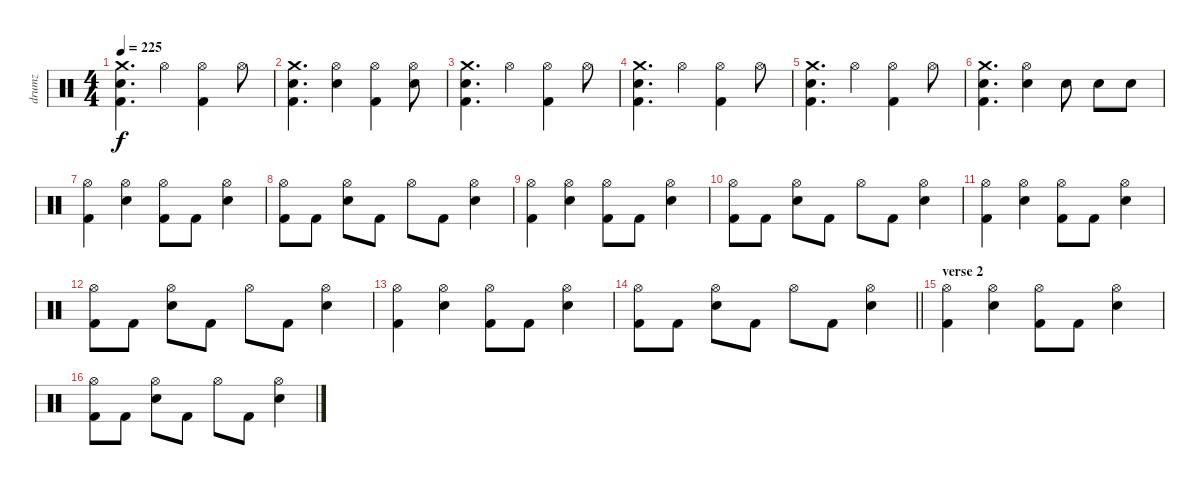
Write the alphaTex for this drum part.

\track ("drumz" "drumz") {instrument percussion}
\staff {score}
\articulation defaults
\ts (4 4)
\tempo 225
\clef neutral
\ks c
("Crash medium (hit)" "Electric Snare (hit)" "Kick (hit) 2").4{d dy f} "Hi-Hat (open)".4 ("Hi-Hat (open)" "Kick (hit) 2").4 "Hi-Hat (open)".8 |
("Crash medium (hit)" "Electric Snare (hit)" "Kick (hit) 2").4{d} ("Hi-Hat (open)" "Electric Snare (hit)").4 ("Hi-Hat (open)" "Kick (hit) 2").4 ("Hi-Hat (open)" "Electric Snare (hit)").8 |
("Crash medium (hit)" "Electric Snare (hit)" "Kick (hit) 2").4{d} "Hi-Hat (open)".4 ("Hi-Hat (open)" "Kick (hit) 2").4 "Hi-Hat (open)".8 |
("Crash medium (hit)" "Electric Snare (hit)" "Kick (hit) 2").4{d} "Hi-Hat (open)".4 ("Hi-Hat (open)" "Kick (hit) 2").4 "Hi-Hat (open)".8 |
("Crash medium (hit)" "Electric Snare (hit)" "Kick (hit) 2").4{d} "Hi-Hat (open)".4 ("Hi-Hat (open)" "Kick (hit) 2").4 "Hi-Hat (open)".8 |
("Crash medium (hit)" "Electric Snare (hit)" "Kick (hit) 2").4{d} ("Hi-Hat (open)" "Electric Snare (hit)").4 "Electric Snare (hit)".8 "Electric Snare (hit)".8 "Electric Snare (hit)".8 |
("Hi-Hat (open)" "Kick (hit) 2").4 ("Hi-Hat (open)" "Electric Snare (hit)").4 ("Hi-Hat (open)" "Kick (hit) 2").8 "Kick (hit) 2".8 ("Hi-Hat (open)" "Electric Snare (hit)").4 |
("Hi-Hat (open)" "Kick (hit) 2").8 "Kick (hit) 2".8 ("Hi-Hat (open)" "Electric Snare (hit)").8 "Kick (hit) 2".8 "Hi-Hat (open)".8 "Kick (hit) 2".8 ("Hi-Hat (open)" "Electric Snare (hit)").4 |
("Hi-Hat (open)" "Kick (hit) 2").4 ("Hi-Hat (open)" "Electric Snare (hit)").4 ("Hi-Hat (open)" "Kick (hit) 2").8 "Kick (hit) 2".8 ("Hi-Hat (open)" "Electric Snare (hit)").4 |
("Hi-Hat (open)" "Kick (hit) 2").8 "Kick (hit) 2".8 ("Hi-Hat (open)" "Electric Snare (hit)").8 "Kick (hit) 2".8 "Hi-Hat (open)".8 "Kick (hit) 2".8 ("Hi-Hat (open)" "Electric Snare (hit)").4 |
("Hi-Hat (open)" "Kick (hit) 2").4 ("Hi-Hat (open)" "Electric Snare (hit)").4 ("Hi-Hat (open)" "Kick (hit) 2").8 "Kick (hit) 2".8 ("Hi-Hat (open)" "Electric Snare (hit)").4 |
("Hi-Hat (open)" "Kick (hit) 2").8 "Kick (hit) 2".8 ("Hi-Hat (open)" "Electric Snare (hit)").8 "Kick (hit) 2".8 "Hi-Hat (open)".8 "Kick (hit) 2".8 ("Hi-Hat (open)" "Electric Snare (hit)").4 |
("Hi-Hat (open)" "Kick (hit) 2").4 ("Hi-Hat (open)" "Electric Snare (hit)").4 ("Hi-Hat (open)" "Kick (hit) 2").8 "Kick (hit) 2".8 ("Hi-Hat (open)" "Electric Snare (hit)").4 |
\barLineRight lightlight
("Hi-Hat (open)" "Kick (hit) 2").8 "Kick (hit) 2".8 ("Hi-Hat (open)" "Electric Snare (hit)").8 "Kick (hit) 2".8 "Hi-Hat (open)".8 "Kick (hit) 2".8 ("Hi-Hat (open)" "Electric Snare (hit)").4 |
\section ("" "verse 2")
("Hi-Hat (open)" "Kick (hit) 2").4 ("Hi-Hat (open)" "Electric Snare (hit)").4 ("Hi-Hat (open)" "Kick (hit) 2").8 "Kick (hit) 2".8 ("Hi-Hat (open)" "Electric Snare (hit)").4 |
("Hi-Hat (open)" "Kick (hit) 2").8 "Kick (hit) 2".8 ("Hi-Hat (open)" "Electric Snare (hit)").8 "Kick (hit) 2".8 "Hi-Hat (open)".8 "Kick (hit) 2".8 ("Hi-Hat (open)" "Electric Snare (hit)").4
